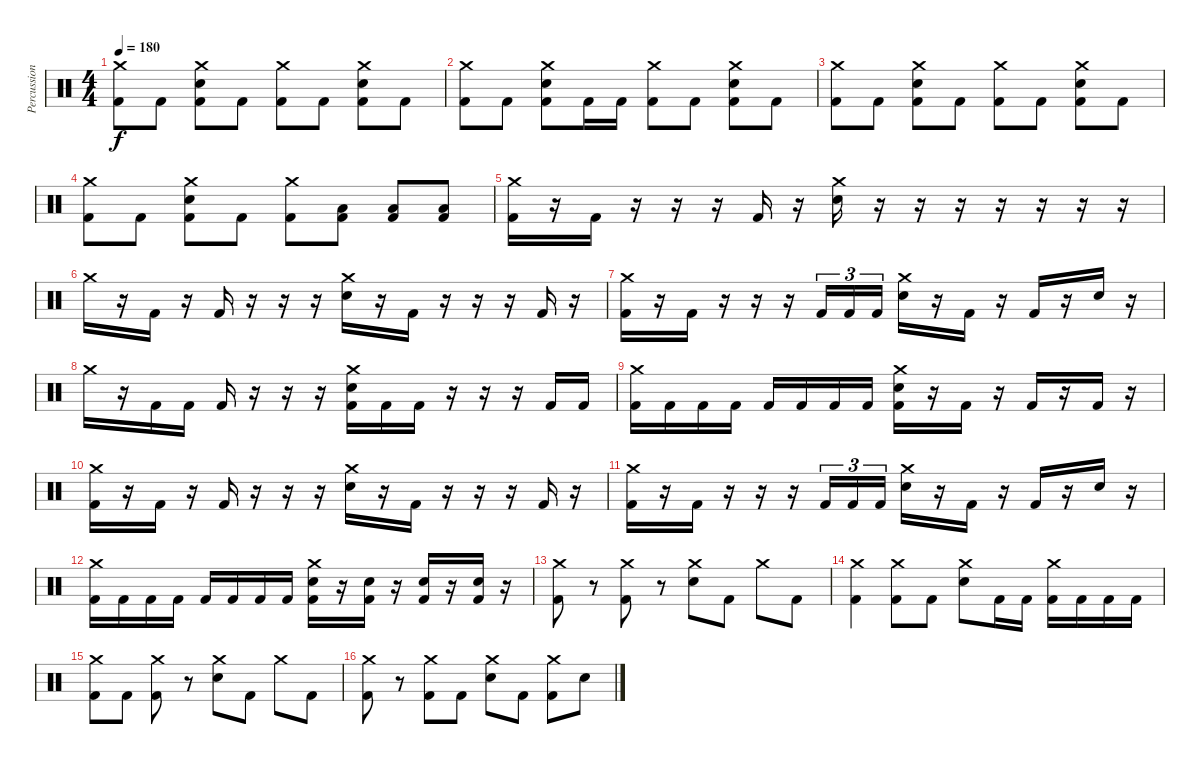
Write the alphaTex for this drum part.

\track ("Percussion" "Percussion") {instrument percussion}
\staff {score}
\articulation defaults
\ts (4 4)
\tempo 180
\clef neutral
\ks c
("Crash medium (hit)" "Kick (hit) 2").8{dy f} "Kick (hit) 2".8 ("Crash medium (hit)" "Electric Snare (hit)" "Kick (hit) 2").8 "Kick (hit) 2".8 ("Crash medium (hit)" "Kick (hit) 2").8 "Kick (hit) 2".8 ("Crash medium (hit)" "Electric Snare (hit)" "Kick (hit) 2").8 "Kick (hit) 2".8 |
("Crash medium (hit)" "Kick (hit) 2").8 "Kick (hit) 2".8 ("Crash medium (hit)" "Electric Snare (hit)" "Kick (hit) 2").8 "Kick (hit) 2".16 "Kick (hit) 2".16 ("Crash medium (hit)" "Kick (hit) 2").8 "Kick (hit) 2".8 ("Crash medium (hit)" "Electric Snare (hit)" "Kick (hit) 2").8 "Kick (hit) 2".8 |
("Crash medium (hit)" "Kick (hit) 2").8 "Kick (hit) 2".8 ("Crash medium (hit)" "Electric Snare (hit)" "Kick (hit) 2").8 "Kick (hit) 2".8 ("Crash medium (hit)" "Kick (hit) 2").8 "Kick (hit) 2".8 ("Crash medium (hit)" "Electric Snare (hit)" "Kick (hit) 2").8 "Kick (hit) 2".8 |
("Crash medium (hit)" "Kick (hit) 2").8 "Kick (hit) 2".8 ("Crash medium (hit)" "Electric Snare (hit)" "Kick (hit) 2").8 "Kick (hit) 2".8 ("Crash medium (hit)" "Kick (hit) 2").8 ("Low Floor Tom (hit)" "Kick (hit) 2").8 ("Low Floor Tom (hit)" "Kick (hit) 2").8 ("Low Floor Tom (hit)" "Kick (hit) 2").8 |
("Crash medium (hit)" "Kick (hit) 2").16 r.16 "Kick (hit) 2".16 r.16 r.16 r.16 "Kick (hit) 2".16 r.16 ("Crash medium (hit)" "Electric Snare (hit)").16 r.16 r.16 r.16 r.16 r.16 r.16 r.16 |
"Crash medium (hit)".16 r.16 "Kick (hit) 2".16 r.16 "Kick (hit) 2".16 r.16 r.16 r.16 ("Crash medium (hit)" "Electric Snare (hit)").16 r.16 "Kick (hit) 2".16 r.16 r.16 r.16 "Kick (hit) 2".16 r.16 |
("Crash medium (hit)" "Kick (hit) 2").16 r.16 "Kick (hit) 2".16 r.16 r.16 r.16 "Kick (hit) 2".16{tu (3 2)} "Kick (hit) 2".16{tu (3 2)} "Kick (hit) 2".16{tu (3 2)} ("Crash medium (hit)" "Electric Snare (hit)").16 r.16 "Kick (hit) 2".16 r.16 "Kick (hit) 2".16 r.16 "Electric Snare (hit)".16 r.16 |
"Crash medium (hit)".16 r.16 "Kick (hit) 2".16 "Kick (hit) 2".16 "Kick (hit) 2".16 r.16 r.16 r.16 ("Crash medium (hit)" "Electric Snare (hit)" "Kick (hit) 2").16 "Kick (hit) 2".16 "Kick (hit) 2".16 r.16 r.16 r.16 "Kick (hit) 2".16 "Kick (hit) 2".16 |
("Crash medium (hit)" "Kick (hit) 2").16 "Kick (hit) 2".16 "Kick (hit) 2".16 "Kick (hit) 2".16 "Kick (hit) 2".16 "Kick (hit) 2".16 "Kick (hit) 2".16 "Kick (hit) 2".16 ("Crash medium (hit)" "Electric Snare (hit)" "Kick (hit) 2").16 r.16 "Kick (hit) 2".16 r.16 "Kick (hit) 2".16 r.16 "Kick (hit) 2".16 r.16 |
("Crash medium (hit)" "Kick (hit) 2").16 r.16 "Kick (hit) 2".16 r.16 "Kick (hit) 2".16 r.16 r.16 r.16 ("Crash medium (hit)" "Electric Snare (hit)").16 r.16 "Kick (hit) 2".16 r.16 r.16 r.16 "Kick (hit) 2".16 r.16 |
("Crash medium (hit)" "Kick (hit) 2").16 r.16 "Kick (hit) 2".16 r.16 r.16 r.16 "Kick (hit) 2".16{tu (3 2)} "Kick (hit) 2".16{tu (3 2)} "Kick (hit) 2".16{tu (3 2)} ("Crash medium (hit)" "Electric Snare (hit)").16 r.16 "Kick (hit) 2".16 r.16 "Kick (hit) 2".16 r.16 "Electric Snare (hit)".16 r.16 |
("Crash medium (hit)" "Kick (hit) 2").16 "Kick (hit) 2".16 "Kick (hit) 2".16 "Kick (hit) 2".16 "Kick (hit) 2".16 "Kick (hit) 2".16 "Kick (hit) 2".16 "Kick (hit) 2".16 ("Crash medium (hit)" "Electric Snare (hit)" "Kick (hit) 2").16 r.16 ("Electric Snare (hit)" "Kick (hit) 2").16 r.16 ("Electric Snare (hit)" "Kick (hit) 2").16 r.16 ("Electric Snare (hit)" "Kick (hit) 2").16 r.16 |
("Crash medium (hit)" "Kick (hit) 2").8 r.8 ("Crash medium (hit)" "Kick (hit) 2").8 r.8 ("Crash medium (hit)" "Electric Snare (hit)").8 "Kick (hit) 2".8 "Crash medium (hit)".8 "Kick (hit) 2".8 |
("Crash medium (hit)" "Kick (hit) 2").4 ("Crash medium (hit)" "Kick (hit) 2").8 "Kick (hit) 2".8 ("Crash medium (hit)" "Electric Snare (hit)").8 "Kick (hit) 2".16 "Kick (hit) 2".16 ("Crash medium (hit)" "Kick (hit) 2").16 "Kick (hit) 2".16 "Kick (hit) 2".16 "Kick (hit) 2".16 |
("Crash medium (hit)" "Kick (hit) 2").8 "Kick (hit) 2".8 ("Crash medium (hit)" "Kick (hit) 2").8 r.8 ("Crash medium (hit)" "Electric Snare (hit)").8 "Kick (hit) 2".8 "Crash medium (hit)".8 "Kick (hit) 2".8 |
("Crash medium (hit)" "Kick (hit) 2").8 r.8 ("Crash medium (hit)" "Kick (hit) 2").8 "Kick (hit) 2".8 ("Crash medium (hit)" "Electric Snare (hit)").8 "Kick (hit) 2".8 ("Crash medium (hit)" "Kick (hit) 2").8 "Electric Snare (hit)".8
